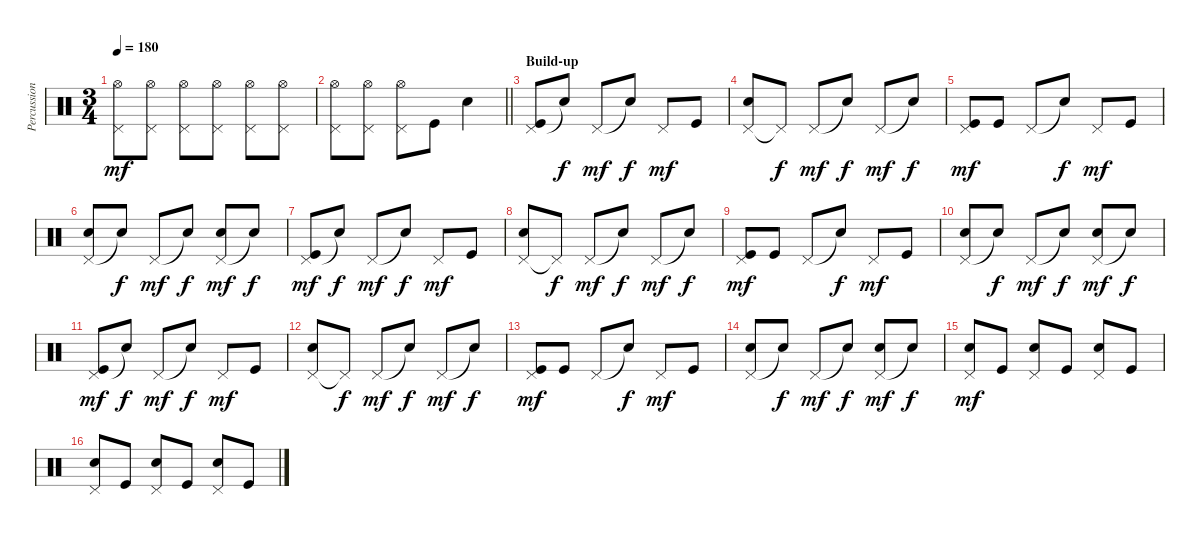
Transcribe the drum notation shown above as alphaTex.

\track ("Percussion" "Percussion") {instrument percussion}
\staff {score}
\articulation defaults
\ts (3 4)
\tempo 180
\clef neutral
\ks c
("Hi-Hat (open)" "Pedal Hi-Hat (hit)").8{dy mf} ("Hi-Hat (open)" "Pedal Hi-Hat (hit)").8 ("Hi-Hat (open)" "Pedal Hi-Hat (hit)").8 ("Hi-Hat (open)" "Pedal Hi-Hat (hit)").8 ("Hi-Hat (open)" "Pedal Hi-Hat (hit)").8 ("Hi-Hat (open)" "Pedal Hi-Hat (hit)").8 |
\barLineRight lightlight
("Hi-Hat (open)" "Pedal Hi-Hat (hit)").8 ("Hi-Hat (open)" "Pedal Hi-Hat (hit)").8 ("Hi-Hat (open)" "Pedal Hi-Hat (hit)").8 "Kick (hit)".8 "Electric Snare (hit)".4 |
\section ("" "Build-up")
("Pedal Hi-Hat (hit)" "Kick (hit)").8 "Snare (hit)"{t}.8{dy f} "Pedal Hi-Hat (hit)".8{dy mf} "Snare (hit)"{t}.8{dy f} "Pedal Hi-Hat (hit)".8{dy mf} "Kick (hit)".8 |
("Pedal Hi-Hat (hit)" "Electric Snare (hit)").8 "Pedal Hi-Hat (hit)"{t}.8{dy f} "Pedal Hi-Hat (hit)".8{dy mf} "Snare (hit)"{t}.8{dy f} "Pedal Hi-Hat (hit)".8{dy mf} "Snare (hit)"{t}.8{dy f} |
("Pedal Hi-Hat (hit)" "Kick (hit)").8{dy mf} "Kick (hit)".8 "Pedal Hi-Hat (hit)".8 "Snare (hit)"{t}.8{dy f} "Pedal Hi-Hat (hit)".8{dy mf} "Kick (hit)".8 |
("Pedal Hi-Hat (hit)" "Electric Snare (hit)").8 "Snare (hit)"{t}.8{dy f} "Pedal Hi-Hat (hit)".8{dy mf} "Snare (hit)"{t}.8{dy f} ("Pedal Hi-Hat (hit)" "Electric Snare (hit)").8{dy mf} "Snare (hit)"{t}.8{dy f} |
("Pedal Hi-Hat (hit)" "Kick (hit)").8{dy mf} "Snare (hit)"{t}.8{dy f} "Pedal Hi-Hat (hit)".8{dy mf} "Snare (hit)"{t}.8{dy f} "Pedal Hi-Hat (hit)".8{dy mf} "Kick (hit)".8 |
("Pedal Hi-Hat (hit)" "Electric Snare (hit)").8 "Pedal Hi-Hat (hit)"{t}.8{dy f} "Pedal Hi-Hat (hit)".8{dy mf} "Snare (hit)"{t}.8{dy f} "Pedal Hi-Hat (hit)".8{dy mf} "Snare (hit)"{t}.8{dy f} |
("Pedal Hi-Hat (hit)" "Kick (hit)").8{dy mf} "Kick (hit)".8 "Pedal Hi-Hat (hit)".8 "Snare (hit)"{t}.8{dy f} "Pedal Hi-Hat (hit)".8{dy mf} "Kick (hit)".8 |
("Pedal Hi-Hat (hit)" "Electric Snare (hit)").8 "Snare (hit)"{t}.8{dy f} "Pedal Hi-Hat (hit)".8{dy mf} "Snare (hit)"{t}.8{dy f} ("Pedal Hi-Hat (hit)" "Electric Snare (hit)").8{dy mf} "Snare (hit)"{t}.8{dy f} |
("Pedal Hi-Hat (hit)" "Kick (hit)").8{dy mf} "Snare (hit)"{t}.8{dy f} "Pedal Hi-Hat (hit)".8{dy mf} "Snare (hit)"{t}.8{dy f} "Pedal Hi-Hat (hit)".8{dy mf} "Kick (hit)".8 |
("Pedal Hi-Hat (hit)" "Electric Snare (hit)").8 "Pedal Hi-Hat (hit)"{t}.8{dy f} "Pedal Hi-Hat (hit)".8{dy mf} "Snare (hit)"{t}.8{dy f} "Pedal Hi-Hat (hit)".8{dy mf} "Snare (hit)"{t}.8{dy f} |
("Pedal Hi-Hat (hit)" "Kick (hit)").8{dy mf} "Kick (hit)".8 "Pedal Hi-Hat (hit)".8 "Snare (hit)"{t}.8{dy f} "Pedal Hi-Hat (hit)".8{dy mf} "Kick (hit)".8 |
("Pedal Hi-Hat (hit)" "Electric Snare (hit)").8 "Snare (hit)"{t}.8{dy f} "Pedal Hi-Hat (hit)".8{dy mf} "Snare (hit)"{t}.8{dy f} ("Pedal Hi-Hat (hit)" "Electric Snare (hit)").8{dy mf} "Snare (hit)"{t}.8{dy f} |
("Pedal Hi-Hat (hit)" "Electric Snare (hit)").8{dy mf} "Kick (hit)".8 ("Pedal Hi-Hat (hit)" "Electric Snare (hit)").8 "Kick (hit)".8 ("Pedal Hi-Hat (hit)" "Electric Snare (hit)").8 "Kick (hit)".8 |
("Pedal Hi-Hat (hit)" "Electric Snare (hit)").8 "Kick (hit)".8 ("Pedal Hi-Hat (hit)" "Electric Snare (hit)").8 "Kick (hit)".8 ("Pedal Hi-Hat (hit)" "Electric Snare (hit)").8 "Kick (hit)".8
